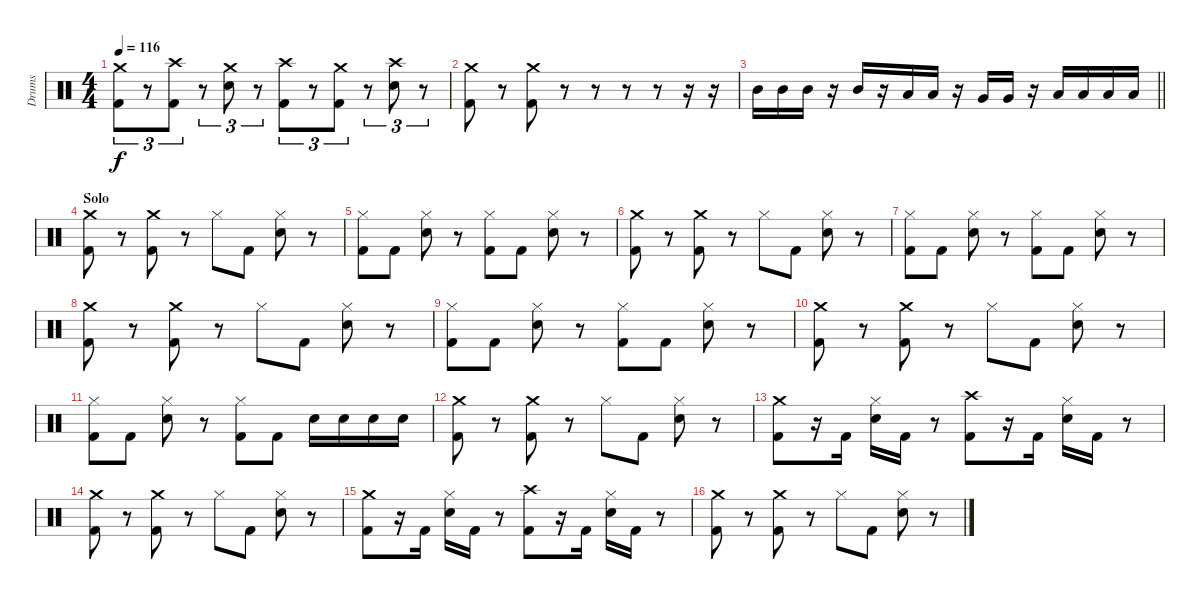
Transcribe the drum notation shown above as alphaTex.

\track ("Drums" "Drums") {instrument percussion}
\staff {score}
\articulation defaults
\ts (4 4)
\tempo 116
\clef neutral
\ks c
("Crash medium (hit)" "Kick (hit) 2").8{tu (3 2) dy f} r.8{tu (3 2)} ("Crash high (hit)" "Kick (hit) 2").8{tu (3 2)} r.8{tu (3 2)} ("Crash medium (hit)" "Snare (hit) 2").8{tu (3 2)} r.8{tu (3 2)} ("Crash high (hit)" "Kick (hit) 2").8{tu (3 2)} r.8{tu (3 2)} ("Crash medium (hit)" "Kick (hit) 2").8{tu (3 2)} r.8{tu (3 2)} ("Crash high (hit)" "Snare (hit) 2").8{tu (3 2)} r.8{tu (3 2)} |
("Crash medium (hit)" "Kick (hit) 2").8 r.8 ("Crash medium (hit)" "Kick (hit) 2").8 r.8 r.8 r.8 r.8 r.16 r.16 |
\barLineRight lightlight "Mid Tom (hit)".16 "Mid Tom (hit)".16 "Mid Tom (hit)".16
r.16 "Mid Tom (hit)".16 r.16 "Low Tom (hit)".16 "Low Tom (hit)".16 r.16 "Very Low Tom (hit)".16 "Very Low Tom (hit)".16 r.16 "Low Floor Tom (hit)".16 "Low Floor Tom (hit)".16 "Low Floor Tom (hit)".16 "Low Floor Tom (hit)".16 |
\section ("" "Solo")
("Crash medium (hit)" "Kick (hit) 2").8 r.8 ("Crash medium (hit)" "Kick (hit) 2").8 r.8 "Hi-Hat (closed)".8 "Kick (hit) 2".8 ("Hi-Hat (closed)" "Snare (hit) 2").8 r.8 |
("Hi-Hat (closed)" "Kick (hit) 2").8 "Kick (hit) 2".8 ("Hi-Hat (closed)" "Snare (hit) 2").8 r.8 ("Hi-Hat (closed)" "Kick (hit) 2").8 "Kick (hit) 2".8 ("Hi-Hat (closed)" "Snare (hit) 2").8 r.8 |
("Crash medium (hit)" "Kick (hit) 2").8 r.8 ("Crash medium (hit)" "Kick (hit) 2").8 r.8 "Hi-Hat (closed)".8 "Kick (hit) 2".8 ("Hi-Hat (closed)" "Snare (hit) 2").8 r.8 |
("Hi-Hat (closed)" "Kick (hit) 2").8 "Kick (hit) 2".8 ("Hi-Hat (closed)" "Snare (hit) 2").8 r.8 ("Hi-Hat (closed)" "Kick (hit) 2").8 "Kick (hit) 2".8 ("Hi-Hat (closed)" "Snare (hit) 2").8 r.8 |
("Crash medium (hit)" "Kick (hit) 2").8 r.8 ("Crash medium (hit)" "Kick (hit) 2").8 r.8 "Hi-Hat (closed)".8 "Kick (hit) 2".8 ("Hi-Hat (closed)" "Snare (hit) 2").8 r.8 |
("Hi-Hat (closed)" "Kick (hit) 2").8 "Kick (hit) 2".8 ("Hi-Hat (closed)" "Snare (hit) 2").8 r.8 ("Hi-Hat (closed)" "Kick (hit) 2").8 "Kick (hit) 2".8 ("Hi-Hat (closed)" "Snare (hit) 2").8 r.8 |
("Crash medium (hit)" "Kick (hit) 2").8 r.8 ("Crash medium (hit)" "Kick (hit) 2").8 r.8 "Hi-Hat (closed)".8 "Kick (hit) 2".8 ("Hi-Hat (closed)" "Snare (hit) 2").8 r.8 |
("Hi-Hat (closed)" "Kick (hit) 2").8 "Kick (hit) 2".8 ("Hi-Hat (closed)" "Snare (hit) 2").8 r.8 ("Hi-Hat (closed)" "Kick (hit) 2").8 "Kick (hit) 2".8 "Snare (hit) 2".16 "Snare (hit) 2".16 "Snare (hit) 2".16 "Snare (hit) 2".16 |
("Crash medium (hit)" "Kick (hit) 2").8 r.8 ("Crash medium (hit)" "Kick (hit) 2").8 r.8 "Hi-Hat (closed)".8 "Kick (hit) 2".8 ("Hi-Hat (closed)" "Snare (hit) 2").8 r.8 |
("Crash medium (hit)" "Kick (hit) 2").8 r.16 "Kick (hit) 2".16 ("Hi-Hat (closed)" "Snare (hit) 2").16 "Kick (hit) 2".16 r.8 ("Crash high (hit)" "Kick (hit) 2").8 r.16 "Kick (hit) 2".16 ("Hi-Hat (closed)" "Snare (hit) 2").16 "Kick (hit) 2".16 r.8 |
("Crash medium (hit)" "Kick (hit) 2").8 r.8 ("Crash medium (hit)" "Kick (hit) 2").8 r.8 "Hi-Hat (closed)".8 "Kick (hit) 2".8 ("Hi-Hat (closed)" "Snare (hit) 2").8 r.8 |
("Crash medium (hit)" "Kick (hit) 2").8 r.16 "Kick (hit) 2".16 ("Hi-Hat (closed)" "Snare (hit) 2").16 "Kick (hit) 2".16 r.8 ("Crash high (hit)" "Kick (hit) 2").8 r.16 "Kick (hit) 2".16 ("Hi-Hat (closed)" "Snare (hit) 2").16 "Kick (hit) 2".16 r.8 |
("Crash medium (hit)" "Kick (hit) 2").8 r.8 ("Crash medium (hit)" "Kick (hit) 2").8 r.8 "Hi-Hat (closed)".8 "Kick (hit) 2".8 ("Hi-Hat (closed)" "Snare (hit) 2").8 r.8
